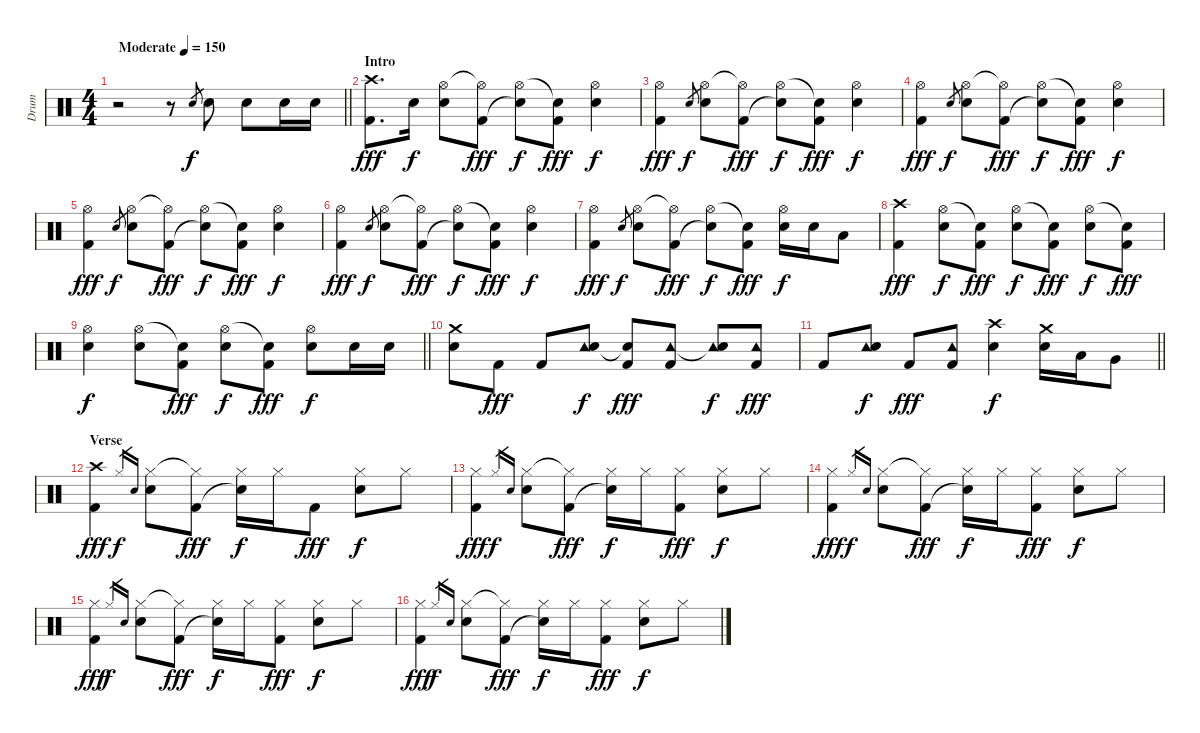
\track ("Drum" "Drum") {instrument percussion}
\staff {score}
\articulation defaults
\ts (4 4)
\tempo (150 "Moderate")
\clef neutral
\barLineRight lightlight
\ks c
r.2{dy f} r.8 "Snare (hit) 2".8{gr} "Snare (hit) 2".8 "Snare (hit) 2".8 "Snare (hit) 2".16 "Snare (hit) 2".16 |
\section ("" "Intro")
("Crash high (hit)" "Kick (hit) 2").8{d dy fff} "Snare (hit) 2".16{dy f} ("Hi-Hat (open)" "Snare (hit) 2").8 ("Hi-Hat (open)"{t} "Kick (hit) 2").8{dy fff} ("Hi-Hat (open)" "Snare (hit)"{t}).8{dy f} ("Snare (hit)"{t} "Kick (hit) 2").8{dy fff} ("Hi-Hat (open)" "Snare (hit) 2").4{dy f} |
("Hi-Hat (open)" "Kick (hit) 2").4{dy fff} "Snare (hit) 2".8{gr dy f} ("Hi-Hat (open)" "Snare (hit) 2").8 ("Hi-Hat (open)"{t} "Kick (hit) 2").8{dy fff} ("Hi-Hat (open)" "Snare (hit)"{t}).8{dy f} ("Snare (hit)"{t} "Kick (hit) 2").8{dy fff} ("Hi-Hat (open)" "Snare (hit) 2").4{dy f} |
("Hi-Hat (open)" "Kick (hit) 2").4{dy fff} "Snare (hit) 2".8{gr dy f} ("Hi-Hat (open)" "Snare (hit) 2").8 ("Hi-Hat (open)"{t} "Kick (hit) 2").8{dy fff} ("Hi-Hat (open)" "Snare (hit)"{t}).8{dy f} ("Snare (hit)"{t} "Kick (hit) 2").8{dy fff} ("Hi-Hat (open)" "Snare (hit) 2").4{dy f} |
("Hi-Hat (open)" "Kick (hit) 2").4{dy fff} "Snare (hit) 2".8{gr dy f} ("Hi-Hat (open)" "Snare (hit) 2").8 ("Hi-Hat (open)"{t} "Kick (hit) 2").8{dy fff} ("Hi-Hat (open)" "Snare (hit)"{t}).8{dy f} ("Snare (hit)"{t} "Kick (hit) 2").8{dy fff} ("Hi-Hat (open)" "Snare (hit) 2").4{dy f} |
("Hi-Hat (open)" "Kick (hit) 2").4{dy fff} "Snare (hit) 2".8{gr dy f} ("Hi-Hat (open)" "Snare (hit) 2").8 ("Hi-Hat (open)"{t} "Kick (hit) 2").8{dy fff} ("Hi-Hat (open)" "Snare (hit)"{t}).8{dy f} ("Snare (hit)"{t} "Kick (hit) 2").8{dy fff} ("Hi-Hat (open)" "Snare (hit) 2").4{dy f} |
("Hi-Hat (open)" "Kick (hit) 2").4{dy fff} "Snare (hit) 2".8{gr dy f} ("Hi-Hat (open)" "Snare (hit) 2").8 ("Hi-Hat (open)"{t} "Kick (hit) 2").8{dy fff} ("Hi-Hat (open)" "Snare (hit)"{t}).8{dy f} ("Snare (hit)"{t} "Kick (hit) 2").8{dy fff} ("Hi-Hat (open)" "Snare (hit) 2").16{dy f} "Snare (hit) 2".16 "Low Tom (hit)".8 |
("Crash high (hit)" "Kick (hit) 2").4{dy fff} ("Hi-Hat (open)" "Snare (hit) 2").8{dy f} ("Snare (hit)"{t} "Kick (hit) 2").8{dy fff} ("Hi-Hat (open)" "Snare (hit) 2").8{dy f} ("Snare (hit)"{t} "Kick (hit) 2").8{dy fff} ("Hi-Hat (open)" "Snare (hit) 2").8{dy f} ("Snare (hit)"{t} "Kick (hit) 2").8{dy fff} |
\barLineRight lightlight
("Hi-Hat (open)" "Snare (hit) 2").4{dy f} ("Hi-Hat (open)" "Snare (hit) 2").8 ("Snare (hit)"{t} "Kick (hit) 2").8{dy fff} ("Hi-Hat (open)" "Snare (hit) 2").8{dy f} ("Snare (hit)"{t} "Kick (hit) 2").8{dy fff} ("Hi-Hat (open)" "Snare (hit) 2").8{dy f} "Snare (hit) 2".16 "Snare (hit) 2".16 |
("Crash medium (hit)" "Snare (hit) 2").8 "Kick (hit) 2".8{dy fff} "Kick (hit) 2".8 ("Tambourine (hit)" "Snare (hit) 2").8{dy f} ("Snare (hit)"{t} "Kick (hit) 2").8{dy fff} ("Tambourine (hit)" "Kick (hit) 2").8 ("Tambourine (hit)"{t} "Snare (hit) 2").8{dy f} ("Tambourine (hit)" "Kick (hit) 2").8{dy fff} |
\barLineRight lightlight "Kick (hit) 2".8
("Tambourine (hit)" "Snare (hit) 2").8{dy f} "Kick (hit) 2".8{dy fff} ("Tambourine (hit)" "Kick (hit) 2").8 ("Crash high (hit)" "Snare (hit) 2").4{dy f} ("Crash medium (hit)" "Snare (hit) 2").16 "Low Tom (hit)".16 "Very Low Tom (hit)".8 |
\section ("" "Verse")
("Crash high (hit)" "Kick (hit) 2").4{dy fff} "Hi-Hat (closed)".16{gr dy f} "Snare (hit) 2".16{gr} ("Hi-Hat (closed)" "Snare (hit) 2").8 ("Hi-Hat (closed)"{t} "Kick (hit) 2").8{dy fff} ("Hi-Hat (closed)" "Snare (hit)"{t}).16{dy f} "Hi-Hat (closed)".16 "Kick (hit) 2".8{dy fff} ("Hi-Hat (closed)" "Snare (hit) 2").8{dy f} "Hi-Hat (closed)".8 |
("Hi-Hat (closed)" "Kick (hit) 2").4{dy fff} "Hi-Hat (closed)".16{gr dy f} "Snare (hit) 2".16{gr} ("Hi-Hat (closed)" "Snare (hit) 2").8 ("Hi-Hat (closed)"{t} "Kick (hit) 2").8{dy fff} ("Hi-Hat (closed)" "Snare (hit)"{t}).16{dy f} "Hi-Hat (closed)".16 ("Hi-Hat (closed)" "Kick (hit) 2").8{dy fff} ("Hi-Hat (closed)" "Snare (hit) 2").8{dy f} "Hi-Hat (closed)".8 |
("Hi-Hat (closed)" "Kick (hit) 2").4{dy fff} "Hi-Hat (closed)".16{gr dy f} "Snare (hit) 2".16{gr} ("Hi-Hat (closed)" "Snare (hit) 2").8 ("Hi-Hat (closed)"{t} "Kick (hit) 2").8{dy fff} ("Hi-Hat (closed)" "Snare (hit)"{t}).16{dy f} "Hi-Hat (closed)".16 ("Hi-Hat (closed)" "Kick (hit) 2").8{dy fff} ("Hi-Hat (closed)" "Snare (hit) 2").8{dy f} "Hi-Hat (closed)".8 |
("Hi-Hat (closed)" "Kick (hit) 2").4{dy fff} "Hi-Hat (closed)".16{gr dy f} "Snare (hit) 2".16{gr} ("Hi-Hat (closed)" "Snare (hit) 2").8 ("Hi-Hat (closed)"{t} "Kick (hit) 2").8{dy fff} ("Hi-Hat (closed)" "Snare (hit)"{t}).16{dy f} "Hi-Hat (closed)".16 ("Hi-Hat (closed)" "Kick (hit) 2").8{dy fff} ("Hi-Hat (closed)" "Snare (hit) 2").8{dy f} "Hi-Hat (closed)".8 |
("Hi-Hat (closed)" "Kick (hit) 2").4{dy fff} "Hi-Hat (closed)".16{gr dy f} "Snare (hit) 2".16{gr} ("Hi-Hat (closed)" "Snare (hit) 2").8 ("Hi-Hat (closed)"{t} "Kick (hit) 2").8{dy fff} ("Hi-Hat (closed)" "Snare (hit)"{t}).16{dy f} "Hi-Hat (closed)".16 ("Hi-Hat (closed)" "Kick (hit) 2").8{dy fff} ("Hi-Hat (closed)" "Snare (hit) 2").8{dy f} "Hi-Hat (closed)".8
